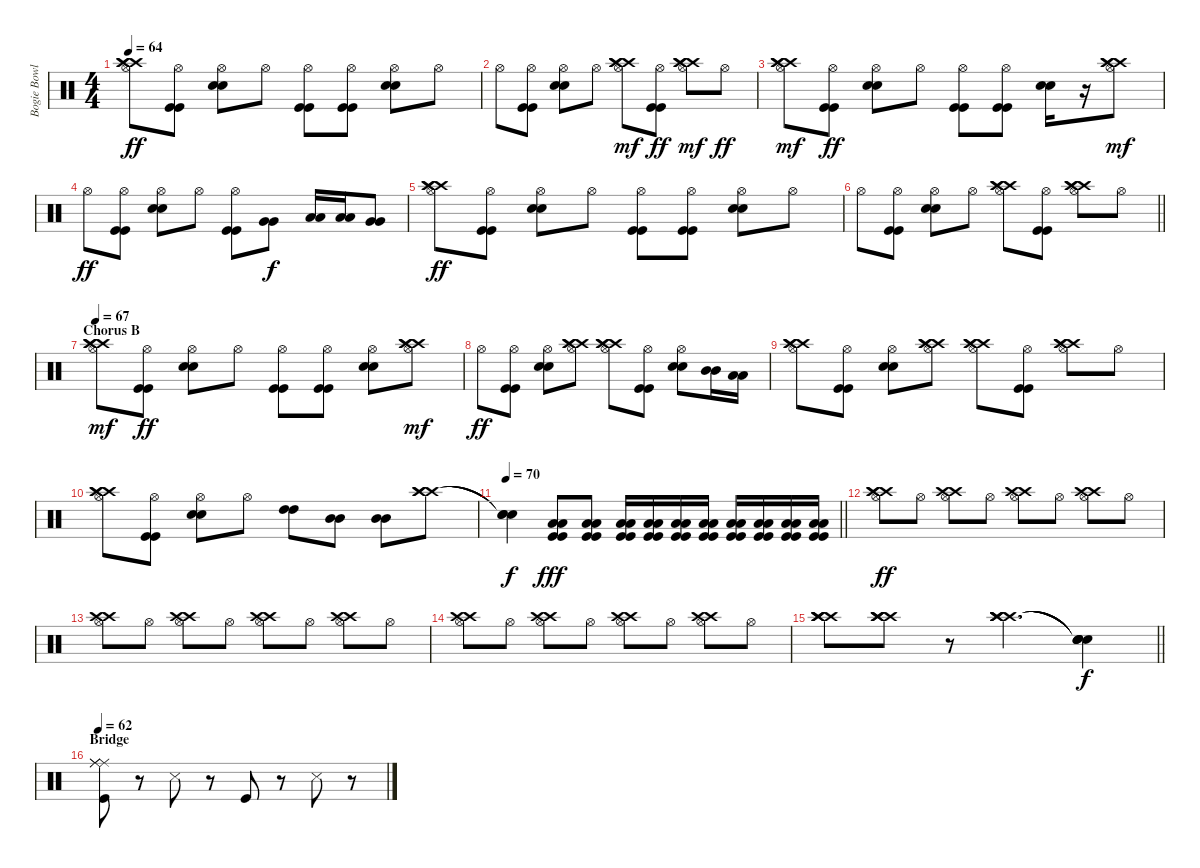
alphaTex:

\track ("Bogie Bowles - Drums" "Bogie Bowl") {instrument percussion}
\staff {score}
\articulation defaults
\ts (4 4)
\tempo 64
\clef neutral
\ks c
("Hi-Hat (open)" "Crash high (hit)" "Crash high (hit)" "Crash high (hit)").8{dy ff} ("Hi-Hat (open)" "Kick (hit)" "Kick (hit)").8 ("Hi-Hat (open)" "Snare (hit) 2" "Snare (hit) 2").8 "Hi-Hat (open)".8 ("Hi-Hat (open)" "Kick (hit)" "Kick (hit)").8 ("Hi-Hat (open)" "Kick (hit)" "Kick (hit)").8 ("Hi-Hat (open)" "Snare (hit) 2" "Snare (hit) 2").8 "Hi-Hat (open)".8 |
"Hi-Hat (open)".8 ("Hi-Hat (open)" "Kick (hit)" "Kick (hit)").8 ("Hi-Hat (open)" "Snare (hit) 2" "Snare (hit) 2").8 "Hi-Hat (open)".8 ("Hi-Hat (open)" "Crash high (hit)" "Crash high (hit)" "Crash high (hit)").8{dy mf} ("Hi-Hat (open)" "Kick (hit)" "Kick (hit)").8{dy ff} ("Hi-Hat (open)" "Crash high (hit)" "Crash high (hit)" "Crash high (hit)").8{dy mf} "Hi-Hat (open)".8{dy ff} |
("Hi-Hat (open)" "Crash high (hit)" "Crash high (hit)" "Crash high (hit)").8{dy mf} ("Hi-Hat (open)" "Kick (hit)" "Kick (hit)").8{dy ff} ("Hi-Hat (open)" "Snare (hit) 2" "Snare (hit) 2").8 "Hi-Hat (open)".8 ("Hi-Hat (open)" "Kick (hit)" "Kick (hit)").8 ("Hi-Hat (open)" "Kick (hit)" "Kick (hit)").8 ("Snare (hit) 2" "Snare (hit) 2").16 r.16 ("Hi-Hat (open)" "Crash high (hit)" "Crash high (hit)" "Crash high (hit)").8{dy mf} |
"Hi-Hat (open)".8{dy ff} ("Hi-Hat (open)" "Kick (hit)" "Kick (hit)").8 ("Hi-Hat (open)" "Snare (hit) 2" "Snare (hit) 2").8 "Hi-Hat (open)".8 ("Hi-Hat (open)" "Kick (hit)" "Kick (hit)").8 ("Very Low Tom (hit)" "Very Low Tom (hit)").8{dy f} ("Low Floor Tom (hit)" "Low Floor Tom (hit)").16 ("Low Floor Tom (hit)" "Low Floor Tom (hit)").16 ("Very Low Tom (hit)" "Very Low Tom (hit)").8 |
("Hi-Hat (open)" "Crash high (hit)" "Crash high (hit)" "Crash high (hit)").8{dy ff} ("Hi-Hat (open)" "Kick (hit)" "Kick (hit)").8 ("Hi-Hat (open)" "Snare (hit) 2" "Snare (hit) 2").8 "Hi-Hat (open)".8 ("Hi-Hat (open)" "Kick (hit)" "Kick (hit)").8 ("Hi-Hat (open)" "Kick (hit)" "Kick (hit)").8 ("Hi-Hat (open)" "Snare (hit) 2" "Snare (hit) 2").8 "Hi-Hat (open)".8 |
\barLineRight lightlight "Hi-Hat (open)".8
("Hi-Hat (open)" "Kick (hit)" "Kick (hit)").8 ("Hi-Hat (open)" "Snare (hit) 2" "Snare (hit) 2").8 "Hi-Hat (open)".8 ("Hi-Hat (open)" "Crash high (hit)" "Crash high (hit)" "Crash high (hit)").8 ("Hi-Hat (open)" "Kick (hit)" "Kick (hit)").8 ("Hi-Hat (open)" "Crash high (hit)" "Crash high (hit)" "Crash high (hit)").8 "Hi-Hat (open)".8 |
\section ("" "Chorus B")
\tempo 67
("Hi-Hat (open)" "Crash high (hit)" "Crash high (hit)" "Crash high (hit)").8{dy mf} ("Hi-Hat (open)" "Kick (hit)" "Kick (hit)").8{dy ff} ("Hi-Hat (open)" "Snare (hit) 2" "Snare (hit) 2").8 "Hi-Hat (open)".8 ("Hi-Hat (open)" "Kick (hit)" "Kick (hit)").8 ("Hi-Hat (open)" "Kick (hit)" "Kick (hit)").8 ("Hi-Hat (open)" "Snare (hit) 2" "Snare (hit) 2").8 ("Hi-Hat (open)" "Crash high (hit)" "Crash high (hit)" "Crash high (hit)").8{dy mf} |
"Hi-Hat (open)".8{dy ff} ("Hi-Hat (open)" "Kick (hit)" "Kick (hit)").8 ("Hi-Hat (open)" "Snare (hit) 2" "Snare (hit) 2").8 ("Hi-Hat (open)" "Crash high (hit)" "Crash high (hit)" "Crash high (hit)").8 ("Hi-Hat (open)" "Crash high (hit)" "Crash high (hit)" "Crash high (hit)").8 ("Hi-Hat (open)" "Kick (hit)" "Kick (hit)").8 ("Hi-Hat (open)" "Snare (hit) 2" "Snare (hit) 2").8 ("Mid Tom (hit)" "Mid Tom (hit)").16 ("Low Tom (hit)" "Low Tom (hit)").16 |
("Hi-Hat (open)" "Crash high (hit)" "Crash high (hit)" "Crash high (hit)").8 ("Hi-Hat (open)" "Kick (hit)" "Kick (hit)").8 ("Hi-Hat (open)" "Snare (hit) 2" "Snare (hit) 2").8 ("Hi-Hat (open)" "Crash high (hit)" "Crash high (hit)" "Crash high (hit)").8 ("Hi-Hat (open)" "Crash high (hit)" "Crash high (hit)" "Crash high (hit)").8 ("Hi-Hat (open)" "Kick (hit)" "Kick (hit)").8 ("Hi-Hat (open)" "Crash high (hit)" "Crash high (hit)" "Crash high (hit)").8 "Hi-Hat (open)".8 |
("Hi-Hat (open)" "Crash high (hit)" "Crash high (hit)" "Crash high (hit)").8 ("Hi-Hat (open)" "Kick (hit)" "Kick (hit)").8 ("Hi-Hat (open)" "Snare (hit) 2" "Snare (hit) 2").8 "Hi-Hat (open)".8 ("High Tom (hit)" "High Tom (hit)").8 ("Mid Tom (hit)" "Mid Tom (hit)").8 ("Mid Tom (hit)" "Mid Tom (hit)").8 ("Crash high (hit)" "Crash high (hit)" "Crash high (hit)").8 |
\tempo 70
\barLineRight lightlight
("Snare (hit)"{t} "Snare (hit)"{t} "Snare (hit)"{t}).4{dy f} ("Kick (hit)" "Kick (hit)" "Low Floor Tom (hit)" "Low Floor Tom (hit)").8{dy fff} ("Kick (hit)" "Kick (hit)" "Low Floor Tom (hit)" "Low Floor Tom (hit)").8 ("Kick (hit)" "Kick (hit)" "Low Floor Tom (hit)" "Low Floor Tom (hit)").16 ("Kick (hit)" "Kick (hit)" "Low Floor Tom (hit)" "Low Floor Tom (hit)").16 ("Kick (hit)" "Kick (hit)" "Low Floor Tom (hit)" "Low Floor Tom (hit)").16 ("Kick (hit)" "Kick (hit)" "Low Floor Tom (hit)" "Low Floor Tom (hit)").16 ("Kick (hit)" "Kick (hit)" "Low Floor Tom (hit)" "Low Floor Tom (hit)").16 ("Kick (hit)" "Kick (hit)" "Low Floor Tom (hit)" "Low Floor Tom (hit)").16 ("Kick (hit)" "Kick (hit)" "Low Floor Tom (hit)" "Low Floor Tom (hit)").16 ("Kick (hit)" "Kick (hit)" "Low Floor Tom (hit)" "Low Floor Tom (hit)").16 |
("Hi-Hat (open)" "Crash high (hit)" "Crash high (hit)" "Crash high (hit)").8{dy ff} "Hi-Hat (open)".8 ("Hi-Hat (open)" "Crash high (hit)" "Crash high (hit)").8 "Hi-Hat (open)".8 ("Hi-Hat (open)" "Crash high (hit)" "Crash high (hit)").8 "Hi-Hat (open)".8 ("Hi-Hat (open)" "Crash high (hit)" "Crash high (hit)").8 "Hi-Hat (open)".8 |
("Hi-Hat (open)" "Crash high (hit)" "Crash high (hit)").8 "Hi-Hat (open)".8 ("Hi-Hat (open)" "Crash high (hit)" "Crash high (hit)").8 "Hi-Hat (open)".8 ("Hi-Hat (open)" "Crash high (hit)" "Crash high (hit)").8 "Hi-Hat (open)".8 ("Hi-Hat (open)" "Crash high (hit)" "Crash high (hit)").8 "Hi-Hat (open)".8 |
("Hi-Hat (open)" "Crash high (hit)" "Crash high (hit)").8 "Hi-Hat (open)".8 ("Hi-Hat (open)" "Crash high (hit)" "Crash high (hit)").8 "Hi-Hat (open)".8 ("Hi-Hat (open)" "Crash high (hit)" "Crash high (hit)").8 "Hi-Hat (open)".8 ("Hi-Hat (open)" "Crash high (hit)" "Crash high (hit)").8 "Hi-Hat (open)".8 |
\barLineRight lightlight
("Crash high (hit)" "Crash high (hit)" "Crash high (hit)" "Crash high (hit)").8 ("Crash high (hit)" "Crash high (hit)" "Crash high (hit)" "Crash high (hit)").8 r.8 ("Crash high (hit)" "Crash high (hit)" "Crash high (hit)" "Crash high (hit)").4{d} ("Snare (hit)"{t} "Snare (hit)"{t} "Snare (hit)"{t} "Snare (hit)"{t}).4{dy f} |
\section ("" "Bridge")
\tempo 62
("Ride (middle)" "Ride (middle)" "Ride (middle)" "Kick (hit)").8 r.8 "Snare (side stick) 3".8 r.8 "Kick (hit)".8 r.8 "Snare (side stick) 3".8 r.8
